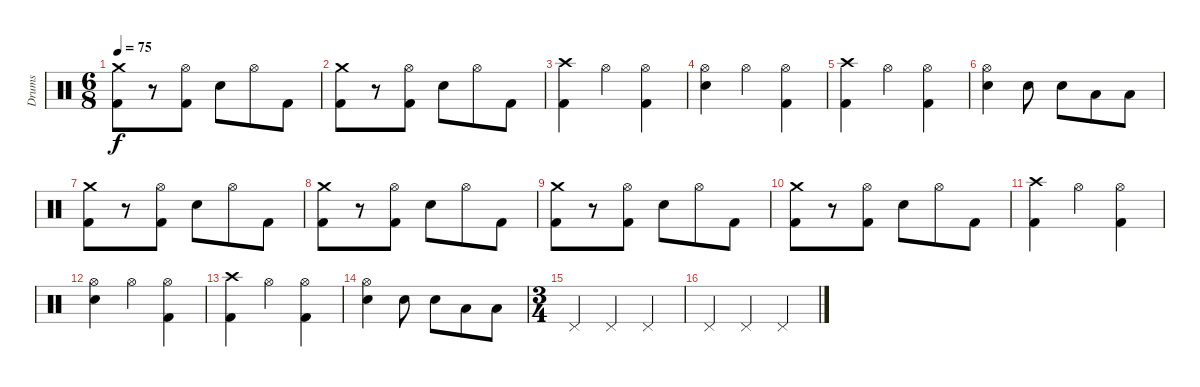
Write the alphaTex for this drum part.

\track ("Drums" "Drums") {instrument percussion}
\staff {score}
\articulation defaults
\ts (6 8)
\tempo 75
\clef neutral
\ks c
("Crash medium (hit)" "Kick (hit) 2").8{dy f} r.8 ("Hi-Hat (open)" "Kick (hit) 2").8 "Electric Snare (hit)".8 "Hi-Hat (open)".8 "Kick (hit) 2".8 |
("Crash medium (hit)" "Kick (hit) 2").8 r.8 ("Hi-Hat (open)" "Kick (hit) 2").8 "Electric Snare (hit)".8 "Hi-Hat (open)".8 "Kick (hit) 2".8 |
("Crash high (hit)" "Kick (hit) 2").4 "Hi-Hat (open)".4 ("Hi-Hat (open)" "Kick (hit) 2").4 |
("Hi-Hat (open)" "Electric Snare (hit)").4 "Hi-Hat (open)".4 ("Hi-Hat (open)" "Kick (hit) 2").4 |
("Crash high (hit)" "Kick (hit) 2").4 "Hi-Hat (open)".4 ("Hi-Hat (open)" "Kick (hit) 2").4 |
("Hi-Hat (open)" "Electric Snare (hit)").4 "Electric Snare (hit)".8 "Electric Snare (hit)".8 "Low Tom (hit)".8 "Low Tom (hit)".8 |
("Crash medium (hit)" "Kick (hit) 2").8 r.8 ("Hi-Hat (open)" "Kick (hit) 2").8 "Electric Snare (hit)".8 "Hi-Hat (open)".8 "Kick (hit) 2".8 |
("Crash medium (hit)" "Kick (hit) 2").8 r.8 ("Hi-Hat (open)" "Kick (hit) 2").8 "Electric Snare (hit)".8 "Hi-Hat (open)".8 "Kick (hit) 2".8 |
("Crash medium (hit)" "Kick (hit) 2").8 r.8 ("Hi-Hat (open)" "Kick (hit) 2").8 "Electric Snare (hit)".8 "Hi-Hat (open)".8 "Kick (hit) 2".8 |
("Crash medium (hit)" "Kick (hit) 2").8 r.8 ("Hi-Hat (open)" "Kick (hit) 2").8 "Electric Snare (hit)".8 "Hi-Hat (open)".8 "Kick (hit) 2".8 |
("Crash high (hit)" "Kick (hit) 2").4 "Hi-Hat (open)".4 ("Hi-Hat (open)" "Kick (hit) 2").4 |
("Hi-Hat (open)" "Electric Snare (hit)").4 "Hi-Hat (open)".4 ("Hi-Hat (open)" "Kick (hit) 2").4 |
("Crash high (hit)" "Kick (hit) 2").4 "Hi-Hat (open)".4 ("Hi-Hat (open)" "Kick (hit) 2").4 |
("Hi-Hat (open)" "Electric Snare (hit)").4 "Electric Snare (hit)".8 "Electric Snare (hit)".8 "Low Tom (hit)".8 "Low Tom (hit)".8 |
\ts (3 4)
"Pedal Hi-Hat (hit)".4 "Pedal Hi-Hat (hit)".4 "Pedal Hi-Hat (hit)".4 |
"Pedal Hi-Hat (hit)".4 "Pedal Hi-Hat (hit)".4 "Pedal Hi-Hat (hit)".4
